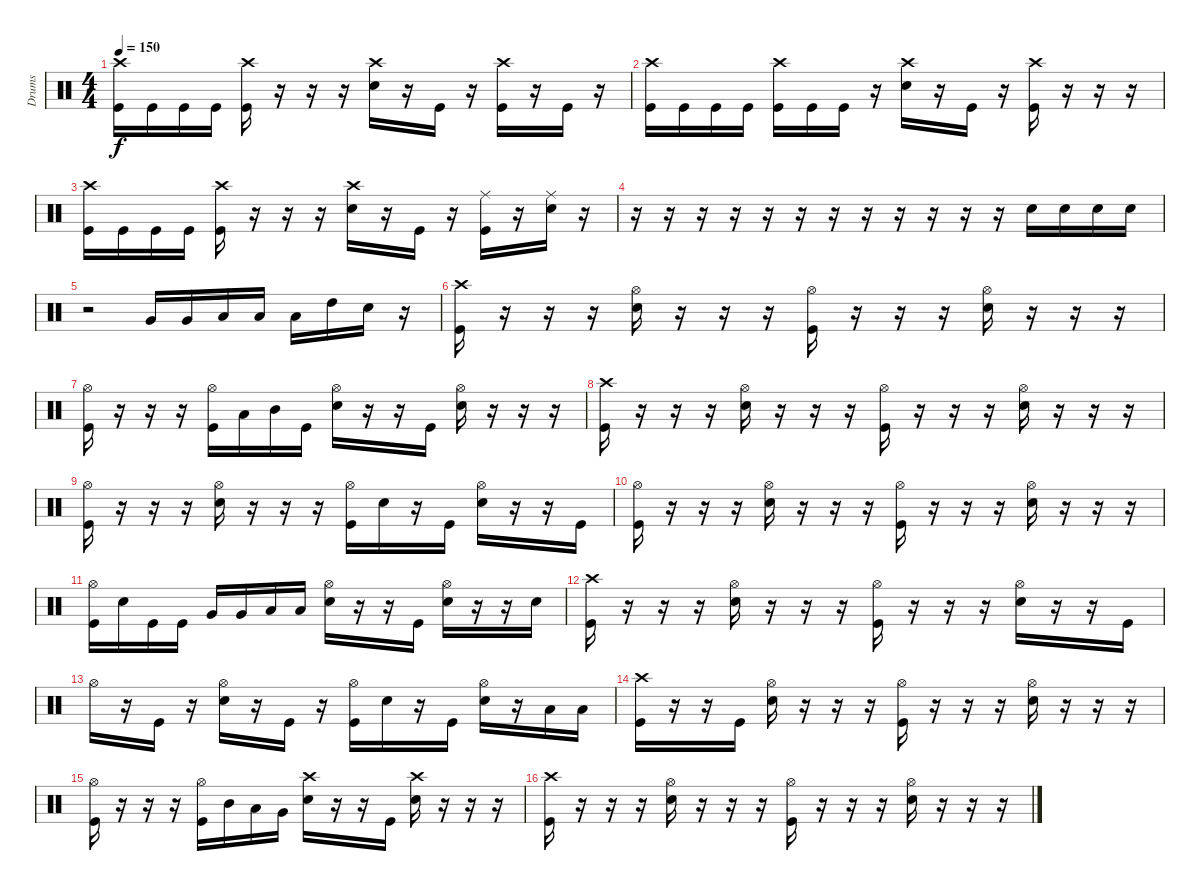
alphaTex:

\track ("Drums" "Drums") {instrument percussion}
\staff {score}
\articulation defaults
\ts (4 4)
\tempo 150
\clef neutral
\ks c
("Crash high (hit)" "Kick (hit)").16{dy f} "Kick (hit)".16 "Kick (hit)".16 "Kick (hit)".16 ("Crash high (hit)" "Kick (hit)").16 r.16 r.16 r.16 ("Crash high (hit)" "Electric Snare (hit)").16 r.16 "Kick (hit)".16 r.16 ("Crash high (hit)" "Kick (hit)").16 r.16 "Kick (hit)".16 r.16 |
("Crash high (hit)" "Kick (hit)").16 "Kick (hit)".16 "Kick (hit)".16 "Kick (hit)".16 ("Crash high (hit)" "Kick (hit)").16 "Kick (hit)".16 "Kick (hit)".16 r.16 ("Crash high (hit)" "Electric Snare (hit)").16 r.16 "Kick (hit)".16 r.16 ("Crash high (hit)" "Kick (hit)").16 r.16 r.16 r.16 |
("Crash high (hit)" "Kick (hit)").16 "Kick (hit)".16 "Kick (hit)".16 "Kick (hit)".16 ("Crash high (hit)" "Kick (hit)").16 r.16 r.16 r.16 ("Crash high (hit)" "Electric Snare (hit)").16 r.16 "Kick (hit)".16 r.16 ("Ride (middle)" "Kick (hit)").16 r.16 ("Ride (middle)" "Electric Snare (hit)").16 r.16 |
r.16 r.16 r.16 r.16 r.16 r.16 r.16 r.16 r.16 r.16 r.16 r.16 "Electric Snare (hit)".16 "Electric Snare (hit)".16 "Electric Snare (hit)".16 "Electric Snare (hit)".16 |
r.2 "Very Low Tom (hit)".16 "Very Low Tom (hit)".16 "Low Floor Tom (hit)".16 "Low Tom (hit)".16 "Low Tom (hit)".16 "High Tom (hit)".16 "Electric Snare (hit)".16 r.16 |
("Crash high (hit)" "Kick (hit)").16 r.16 r.16 r.16 ("Hi-Hat (open)" "Electric Snare (hit)").16 r.16 r.16 r.16 ("Hi-Hat (open)" "Kick (hit)").16 r.16 r.16 r.16 ("Hi-Hat (open)" "Electric Snare (hit)").16 r.16 r.16 r.16 |
("Hi-Hat (open)" "Kick (hit)").16 r.16 r.16 r.16 ("Hi-Hat (open)" "Kick (hit)").16 "Low Tom (hit)".16 "Mid Tom (hit)".16 "Kick (hit)".16 ("Hi-Hat (open)" "Electric Snare (hit)").16 r.16 r.16 "Kick (hit)".16 ("Hi-Hat (open)" "Electric Snare (hit)").16 r.16 r.16 r.16 |
("Crash high (hit)" "Kick (hit)").16 r.16 r.16 r.16 ("Hi-Hat (open)" "Electric Snare (hit)").16 r.16 r.16 r.16 ("Hi-Hat (open)" "Kick (hit)").16 r.16 r.16 r.16 ("Hi-Hat (open)" "Electric Snare (hit)").16 r.16 r.16 r.16 |
("Hi-Hat (open)" "Kick (hit)").16 r.16 r.16 r.16 ("Hi-Hat (open)" "Electric Snare (hit)").16 r.16 r.16 r.16 ("Hi-Hat (open)" "Kick (hit)").16 "Electric Snare (hit)".16 r.16 "Kick (hit)".16 ("Hi-Hat (open)" "Electric Snare (hit)").16 r.16 r.16 "Kick (hit)".16 |
("Hi-Hat (open)" "Kick (hit)").16 r.16 r.16 r.16 ("Hi-Hat (open)" "Electric Snare (hit)").16 r.16 r.16 r.16 ("Hi-Hat (open)" "Kick (hit)").16 r.16 r.16 r.16 ("Hi-Hat (open)" "Electric Snare (hit)").16 r.16 r.16 r.16 |
("Hi-Hat (open)" "Kick (hit)").16 "Electric Snare (hit)".16 "Kick (hit)".16 "Kick (hit)".16 "Very Low Tom (hit)".16 "Very Low Tom (hit)".16 "Low Tom (hit)".16 "Low Tom (hit)".16 ("Hi-Hat (open)" "Electric Snare (hit)").16 r.16 r.16 "Kick (hit)".16 ("Hi-Hat (open)" "Electric Snare (hit)").16 r.16 r.16 "Electric Snare (hit)".16 |
("Crash high (hit)" "Kick (hit)").16 r.16 r.16 r.16 ("Hi-Hat (open)" "Electric Snare (hit)").16 r.16 r.16 r.16 ("Hi-Hat (open)" "Kick (hit)").16 r.16 r.16 r.16 ("Hi-Hat (open)" "Electric Snare (hit)").16 r.16 r.16 "Kick (hit)".16 |
"Hi-Hat (open)".16 r.16 "Kick (hit)".16 r.16 ("Hi-Hat (open)" "Electric Snare (hit)").16 r.16 "Kick (hit)".16 r.16 ("Hi-Hat (open)" "Kick (hit)").16 "Electric Snare (hit)".16 r.16 "Kick (hit)".16 ("Hi-Hat (open)" "Electric Snare (hit)").16 r.16 "Low Tom (hit)".16 "Low Tom (hit)".16 |
("Crash high (hit)" "Kick (hit)").16 r.16 r.16 "Kick (hit)".16 ("Hi-Hat (open)" "Electric Snare (hit)").16 r.16 r.16 r.16 ("Hi-Hat (open)" "Kick (hit)").16 r.16 r.16 r.16 ("Hi-Hat (open)" "Electric Snare (hit)").16 r.16 r.16 r.16 |
("Hi-Hat (open)" "Kick (hit)").16 r.16 r.16 r.16 ("Hi-Hat (open)" "Kick (hit)").16 "Mid Tom (hit)".16 "Low Tom (hit)".16 "Very Low Tom (hit)".16 ("Crash high (hit)" "Electric Snare (hit)").16 r.16 r.16 "Kick (hit)".16 ("Crash high (hit)" "Electric Snare (hit)").16 r.16 r.16 r.16 |
("Crash high (hit)" "Kick (hit)").16 r.16 r.16 r.16 ("Hi-Hat (open)" "Electric Snare (hit)").16 r.16 r.16 r.16 ("Hi-Hat (open)" "Kick (hit)").16 r.16 r.16 r.16 ("Hi-Hat (open)" "Electric Snare (hit)").16 r.16 r.16 r.16
